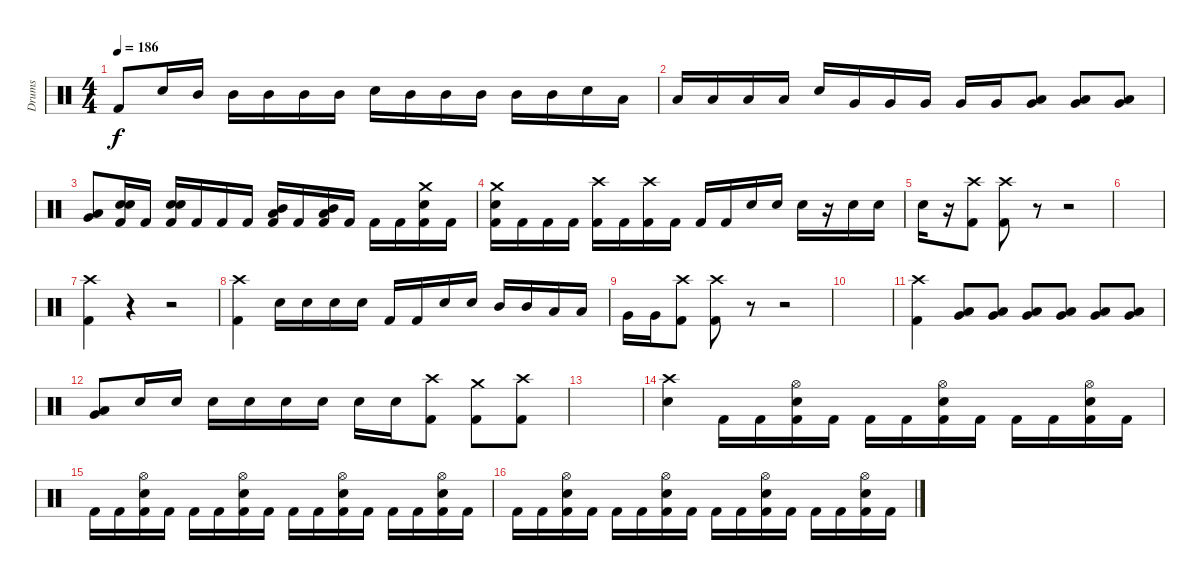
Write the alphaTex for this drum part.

\track ("Drums" "Drums") {instrument percussion bank 177}
\staff {score}
\articulation defaults
\ts (4 4)
\tempo 186
\clef neutral
\ks c "Kick (hit) 2".8{dy f} "Snare (hit) 2".16 "Mid Tom (hit)".16 "Mid Tom (hit)".16 "Mid Tom (hit)".16 "Mid Tom (hit)".16 "Mid Tom (hit)".16 "Snare (hit) 2".16 "Mid Tom (hit)".16 "Mid Tom (hit)".16 "Mid Tom (hit)".16 "Mid Tom (hit)".16 "Mid Tom (hit)".16 "Snare (hit) 2".16 "Low Tom (hit)".16
|
"Low Tom (hit)".16 "Low Tom (hit)".16 "Low Tom (hit)".16 "Low Tom (hit)".16 "Snare (hit) 2".16 "Very Low Tom (hit)".16 "Very Low Tom (hit)".16 "Very Low Tom (hit)".16 "Very Low Tom (hit)".16 "Very Low Tom (hit)".16 ("Very Low Tom (hit)" "Low Floor Tom (hit)").8 ("Very Low Tom (hit)" "Low Floor Tom (hit)").8 ("Very Low Tom (hit)" "Low Floor Tom (hit)").8 |
("Very Low Tom (hit)" "Low Floor Tom (hit)").8 ("Snare (hit) 2" "Snare (hit) 2" "Kick (hit) 2").16 "Kick (hit) 2".16 ("Snare (hit) 2" "Snare (hit) 2" "Kick (hit) 2").16 "Kick (hit) 2".16 "Kick (hit) 2".16 "Kick (hit) 2".16 ("Low Tom (hit)" "Mid Tom (hit)" "Kick (hit) 2").16 "Kick (hit) 2".16 ("Low Tom (hit)" "Mid Tom (hit)" "Kick (hit) 2").16 "Kick (hit) 2".16 "Kick (hit) 2".16 "Kick (hit) 2".16 ("Crash medium (hit)" "Snare (hit) 2" "Kick (hit) 2").16 "Kick (hit) 2".16 |
("Crash medium (hit)" "Snare (hit) 2" "Kick (hit) 2").16 "Kick (hit) 2".16 "Kick (hit) 2".16 "Kick (hit) 2".16 ("Crash high (hit)" "Kick (hit) 2").16 "Kick (hit) 2".16 ("Crash high (hit)" "Kick (hit) 2").16 "Kick (hit) 2".16 "Kick (hit) 2".16 "Kick (hit) 2".16 "Snare (hit) 2".16 "Snare (hit) 2".16 "Snare (hit) 2".16 r.16 "Snare (hit) 2".16 "Snare (hit) 2".16 |
"Snare (hit) 2".16 r.16 ("Crash high (hit)" "Kick (hit) 2").8 ("Crash high (hit)" "Kick (hit) 2").8 r.8 r.2 |
|
("Crash high (hit)" "Kick (hit) 2").4 r.4 r.2 |
("Crash high (hit)" "Kick (hit) 2").4 "Snare (hit) 2".16 "Snare (hit) 2".16 "Snare (hit) 2".16 "Snare (hit) 2".16 "Kick (hit) 2".16 "Kick (hit) 2".16 "Snare (hit) 2".16 "Snare (hit) 2".16 "Mid Tom (hit)".16 "Mid Tom (hit)".16 "Low Tom (hit)".16 "Low Tom (hit)".16 |
"Very Low Tom (hit)".16 "Very Low Tom (hit)".16 ("Crash high (hit)" "Kick (hit) 2").8 ("Crash high (hit)" "Kick (hit) 2").8 r.8 r.2 |
|
("Crash high (hit)" "Kick (hit) 2").4 ("Low Tom (hit)" "Very Low Tom (hit)").8 ("Low Tom (hit)" "Very Low Tom (hit)").8 ("Low Tom (hit)" "Very Low Tom (hit)").8 ("Low Tom (hit)" "Very Low Tom (hit)").8 ("Low Tom (hit)" "Very Low Tom (hit)").8 ("Low Tom (hit)" "Very Low Tom (hit)").8 |
("Low Tom (hit)" "Very Low Tom (hit)").8 "Snare (hit) 2".16 "Snare (hit) 2".16 "Snare (hit) 2".16 "Snare (hit) 2".16 "Snare (hit) 2".16 "Snare (hit) 2".16 "Snare (hit) 2".16 "Snare (hit) 2".16 ("Crash high (hit)" "Kick (hit) 2").8 ("Crash medium (hit)" "Kick (hit) 2").8 ("Crash high (hit)" "Kick (hit) 2").8 |
|
("Crash high (hit)" "Snare (hit) 2").4 "Kick (hit) 2".16 "Kick (hit) 2".16 ("Hi-Hat (open)" "Snare (hit) 2" "Kick (hit) 2").16 "Kick (hit) 2".16 "Kick (hit) 2".16 "Kick (hit) 2".16 ("Hi-Hat (open)" "Snare (hit) 2" "Kick (hit) 2").16 "Kick (hit) 2".16 "Kick (hit) 2".16 "Kick (hit) 2".16 ("Hi-Hat (open)" "Snare (hit) 2" "Kick (hit) 2").16 "Kick (hit) 2".16 |
"Kick (hit) 2".16 "Kick (hit) 2".16 ("Hi-Hat (open)" "Snare (hit) 2" "Kick (hit) 2").16 "Kick (hit) 2".16 "Kick (hit) 2".16 "Kick (hit) 2".16 ("Hi-Hat (open)" "Snare (hit) 2" "Kick (hit) 2").16 "Kick (hit) 2".16 "Kick (hit) 2".16 "Kick (hit) 2".16 ("Hi-Hat (open)" "Snare (hit) 2" "Kick (hit) 2").16 "Kick (hit) 2".16 "Kick (hit) 2".16 "Kick (hit) 2".16 ("Hi-Hat (open)" "Snare (hit) 2" "Kick (hit) 2").16 "Kick (hit) 2".16 |
"Kick (hit) 2".16 "Kick (hit) 2".16 ("Hi-Hat (open)" "Snare (hit) 2" "Kick (hit) 2").16 "Kick (hit) 2".16 "Kick (hit) 2".16 "Kick (hit) 2".16 ("Hi-Hat (open)" "Snare (hit) 2" "Kick (hit) 2").16 "Kick (hit) 2".16 "Kick (hit) 2".16 "Kick (hit) 2".16 ("Hi-Hat (open)" "Snare (hit) 2" "Kick (hit) 2").16 "Kick (hit) 2".16 "Kick (hit) 2".16 "Kick (hit) 2".16 ("Hi-Hat (open)" "Snare (hit) 2" "Kick (hit) 2").16 "Kick (hit) 2".16
